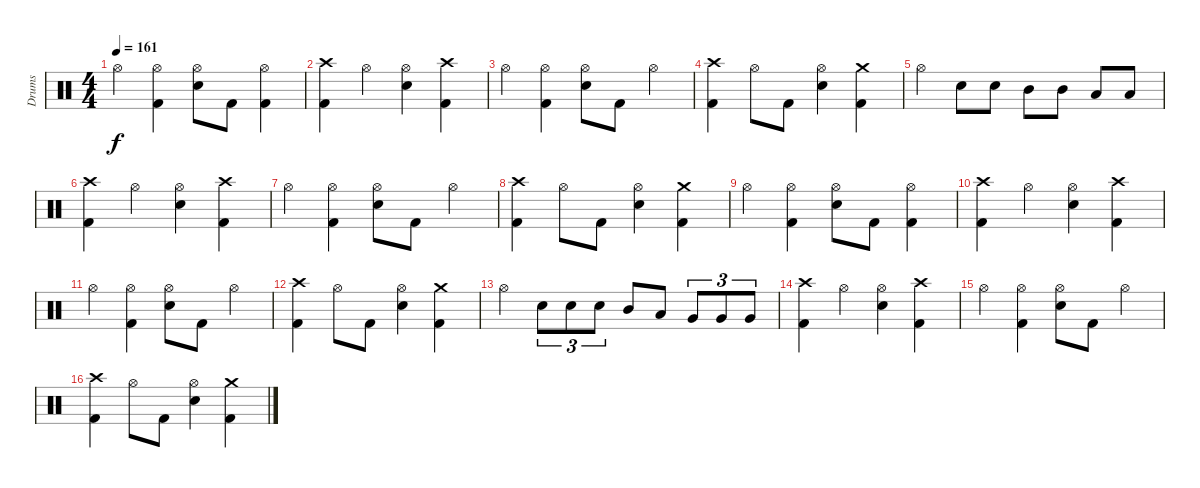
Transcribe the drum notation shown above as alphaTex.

\track ("Drums" "Drums") {instrument percussion}
\staff {score}
\articulation defaults
\ts (4 4)
\tempo 161
\clef neutral
\ks c "Hi-Hat (open)".4{dy f}
("Hi-Hat (open)" "Kick (hit) 2").4 ("Hi-Hat (open)" "Snare (hit) 2").8 "Kick (hit) 2".8 ("Hi-Hat (open)" "Kick (hit) 2").4 |
("Crash high (hit)" "Kick (hit) 2").4 "Hi-Hat (open)".4 ("Hi-Hat (open)" "Snare (hit) 2").4 ("Crash high (hit)" "Kick (hit) 2").4 |
"Hi-Hat (open)".4 ("Hi-Hat (open)" "Kick (hit) 2").4 ("Hi-Hat (open)" "Snare (hit) 2").8 "Kick (hit) 2".8 "Hi-Hat (open)".4 |
("Crash high (hit)" "Kick (hit) 2").4 "Hi-Hat (open)".8 "Kick (hit) 2".8 ("Hi-Hat (open)" "Snare (hit) 2").4 ("Crash medium (hit)" "Kick (hit) 2").4 |
"Hi-Hat (open)".4 "Snare (hit) 2".8 "Snare (hit) 2".8 "Mid Tom (hit)".8 "Mid Tom (hit)".8 "Low Tom (hit)".8 "Low Tom (hit)".8 |
("Crash high (hit)" "Kick (hit) 2").4 "Hi-Hat (open)".4 ("Hi-Hat (open)" "Snare (hit) 2").4 ("Crash high (hit)" "Kick (hit) 2").4 |
"Hi-Hat (open)".4 ("Hi-Hat (open)" "Kick (hit) 2").4 ("Hi-Hat (open)" "Snare (hit) 2").8 "Kick (hit) 2".8 "Hi-Hat (open)".4 |
("Crash high (hit)" "Kick (hit) 2").4 "Hi-Hat (open)".8 "Kick (hit) 2".8 ("Hi-Hat (open)" "Snare (hit) 2").4 ("Crash medium (hit)" "Kick (hit) 2").4 |
"Hi-Hat (open)".4 ("Hi-Hat (open)" "Kick (hit) 2").4 ("Hi-Hat (open)" "Snare (hit) 2").8 "Kick (hit) 2".8 ("Hi-Hat (open)" "Kick (hit) 2").4 |
("Crash high (hit)" "Kick (hit) 2").4 "Hi-Hat (open)".4 ("Hi-Hat (open)" "Snare (hit) 2").4 ("Crash high (hit)" "Kick (hit) 2").4 |
"Hi-Hat (open)".4 ("Hi-Hat (open)" "Kick (hit) 2").4 ("Hi-Hat (open)" "Snare (hit) 2").8 "Kick (hit) 2".8 "Hi-Hat (open)".4 |
("Crash high (hit)" "Kick (hit) 2").4 "Hi-Hat (open)".8 "Kick (hit) 2".8 ("Hi-Hat (open)" "Snare (hit) 2").4 ("Crash medium (hit)" "Kick (hit) 2").4 |
"Hi-Hat (open)".4 "Snare (hit) 2".8{tu (3 2)} "Snare (hit) 2".8{tu (3 2)} "Snare (hit) 2".8{tu (3 2)} "Mid Tom (hit)".8 "Low Tom (hit)".8 "Very Low Tom (hit)".8{tu (3 2)} "Very Low Tom (hit)".8{tu (3 2)} "Very Low Tom (hit)".8{tu (3 2)} |
("Crash high (hit)" "Kick (hit) 2").4 "Hi-Hat (open)".4 ("Hi-Hat (open)" "Snare (hit) 2").4 ("Crash high (hit)" "Kick (hit) 2").4 |
"Hi-Hat (open)".4 ("Hi-Hat (open)" "Kick (hit) 2").4 ("Hi-Hat (open)" "Snare (hit) 2").8 "Kick (hit) 2".8 "Hi-Hat (open)".4 |
("Crash high (hit)" "Kick (hit) 2").4 "Hi-Hat (open)".8 "Kick (hit) 2".8 ("Hi-Hat (open)" "Snare (hit) 2").4 ("Crash medium (hit)" "Kick (hit) 2").4
